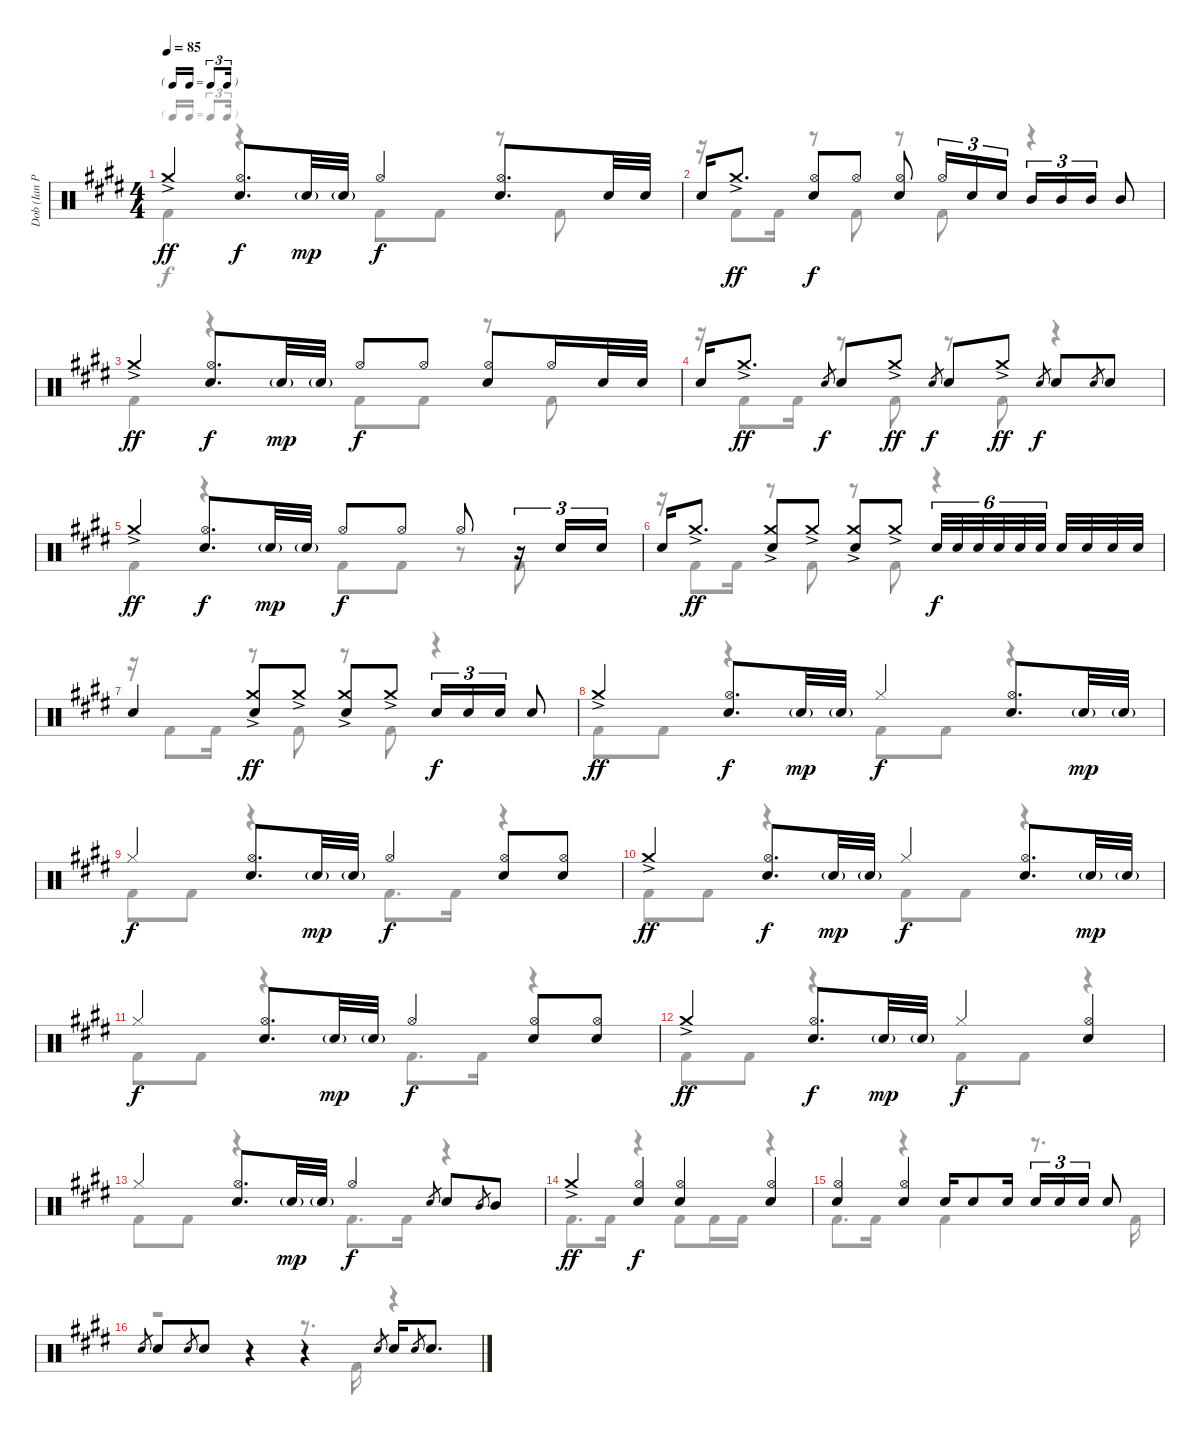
\track ("Dob (Ian Paice)" "Dob (Ian P") {instrument percussion}
\staff {score}
\articulation defaults
\voice
\ts (4 4)
\tf triplet16th
\tempo 85
\clef neutral
\ks e "Crash medium (hit)"{ac}.4{dy ff}
("Hi-Hat (open)" "Electric Snare (hit)").8{d dy f} "Electric Snare (hit)"{g}.32{dy mp} "Electric Snare (hit)"{g}.32 "Hi-Hat (open)".4{dy f} ("Hi-Hat (open)" "Electric Snare (hit)").8{d} "Electric Snare (hit)".32 "Electric Snare (hit)".32 |
"Electric Snare (hit)".16 "Crash medium (hit)"{ac}.8{d dy ff} ("Hi-Hat (open)" "Electric Snare (hit)").8{dy f} "Hi-Hat (open)".8 ("Hi-Hat (open)" "Electric Snare (hit)").8 "Hi-Hat (open)".16{tu (3 2)} "Electric Snare (hit)".16{tu (3 2)} "Electric Snare (hit)".16{tu (3 2)} "Mid Tom (hit)".16{tu (3 2)} "Mid Tom (hit)".16{tu (3 2)} "Mid Tom (hit)".16{tu (3 2)} "Mid Tom (hit)".8 |
"Crash medium (hit)"{ac}.4{dy ff} ("Hi-Hat (open)" "Electric Snare (hit)").8{d dy f} "Electric Snare (hit)"{g}.32{dy mp} "Electric Snare (hit)"{g}.32 "Hi-Hat (open)".8{dy f} "Hi-Hat (open)".8 ("Hi-Hat (open)" "Electric Snare (hit)").8 "Hi-Hat (open)".16 "Electric Snare (hit)".32 "Electric Snare (hit)".32 |
"Electric Snare (hit)".16 "Crash medium (hit)"{ac}.8{d dy ff} "Electric Snare (hit)".8{gr dy f} "Electric Snare (hit)".8 "Crash medium (hit)"{ac}.8{dy ff} "Electric Snare (hit)".8{gr dy f} "Electric Snare (hit)".8 "Crash medium (hit)"{ac}.8{dy ff} "Electric Snare (hit)".8{gr dy f} "Electric Snare (hit)".8 "Electric Snare (hit)".8{gr} "Electric Snare (hit)".8 |
"Crash medium (hit)"{ac}.4{dy ff} ("Hi-Hat (open)" "Electric Snare (hit)").8{d dy f} "Electric Snare (hit)"{g}.32{dy mp} "Electric Snare (hit)"{g}.32 "Hi-Hat (open)".8{dy f} "Hi-Hat (open)".8 "Hi-Hat (open)".8 r.16{tu (3 2)} "Electric Snare (hit)".16{tu (3 2)} "Electric Snare (hit)".16{tu (3 2)} |
"Electric Snare (hit)".16 "Crash medium (hit)"{ac}.8{d dy ff} ("Crash medium (hit)"{ac} "Electric Snare (hit)").8 "Crash medium (hit)"{ac}.8 ("Crash medium (hit)"{ac} "Electric Snare (hit)").8 "Crash medium (hit)"{ac}.8 "Electric Snare (hit)".32{tu (6 4) dy f} "Electric Snare (hit)".32{tu (6 4)} "Electric Snare (hit)".32{tu (6 4)} "Electric Snare (hit)".32{tu (6 4)} "Electric Snare (hit)".32{tu (6 4)} "Electric Snare (hit)".32{tu (6 4) beam splitsecondary} "Electric Snare (hit)".32 "Electric Snare (hit)".32 "Electric Snare (hit)".32 "Electric Snare (hit)".32 |
"Electric Snare (hit)".4 ("Crash medium (hit)"{ac} "Electric Snare (hit)").8{dy ff} "Crash medium (hit)"{ac}.8 ("Crash medium (hit)"{ac} "Electric Snare (hit)").8 "Crash medium (hit)"{ac}.8 "Electric Snare (hit)".16{tu (3 2) dy f} "Electric Snare (hit)".16{tu (3 2)} "Electric Snare (hit)".16{tu (3 2)} "Electric Snare (hit)".8 |
"Crash medium (hit)"{ac}.4{dy ff} ("Hi-Hat (open)" "Electric Snare (hit)").8{d dy f} "Electric Snare (hit)"{g}.32{dy mp} "Electric Snare (hit)"{g}.32 "Hi-Hat (closed)".4{dy f} ("Hi-Hat (open)" "Electric Snare (hit)").8{d} "Electric Snare (hit)"{g}.32{dy mp} "Electric Snare (hit)"{g}.32 |
"Hi-Hat (closed)".4{dy f} ("Hi-Hat (open)" "Electric Snare (hit)").8{d} "Electric Snare (hit)"{g}.32{dy mp} "Electric Snare (hit)"{g}.32 "Hi-Hat (open)".4{dy f} ("Hi-Hat (open)" "Electric Snare (hit)").8 ("Hi-Hat (open)" "Electric Snare (hit)").8 |
"Crash medium (hit)"{ac}.4{dy ff} ("Hi-Hat (open)" "Electric Snare (hit)").8{d dy f} "Electric Snare (hit)"{g}.32{dy mp} "Electric Snare (hit)"{g}.32 "Hi-Hat (closed)".4{dy f} ("Hi-Hat (open)" "Electric Snare (hit)").8{d} "Electric Snare (hit)"{g}.32{dy mp} "Electric Snare (hit)"{g}.32 |
"Hi-Hat (closed)".4{dy f} ("Hi-Hat (open)" "Electric Snare (hit)").8{d} "Electric Snare (hit)"{g}.32{dy mp} "Electric Snare (hit)"{g}.32 "Hi-Hat (open)".4{dy f} ("Hi-Hat (open)" "Electric Snare (hit)").8 ("Hi-Hat (open)" "Electric Snare (hit)").8 |
"Crash medium (hit)"{ac}.4{dy ff} ("Hi-Hat (open)" "Electric Snare (hit)").8{d dy f} "Electric Snare (hit)"{g}.32{dy mp} "Electric Snare (hit)"{g}.32 "Hi-Hat (closed)".4{dy f} ("Hi-Hat (open)" "Electric Snare (hit)").4 |
"Hi-Hat (closed)".4 ("Hi-Hat (open)" "Electric Snare (hit)").8{d} "Electric Snare (hit)"{g}.32{dy mp} "Electric Snare (hit)"{g}.32 "Hi-Hat (open)".4{dy f} "Electric Snare (hit)".8{gr} "Electric Snare (hit)".8 "Mid Tom (hit)".8{gr} "Mid Tom (hit)".8 |
"Crash medium (hit)"{ac}.4{dy ff} ("Hi-Hat (open)" "Electric Snare (hit)").4{dy f} ("Hi-Hat (open)" "Electric Snare (hit)").4 ("Hi-Hat (open)" "Electric Snare (hit)").4 |
("Hi-Hat (open)" "Electric Snare (hit)").4 ("Hi-Hat (open)" "Electric Snare (hit)").4 "Electric Snare (hit)".16 "Electric Snare (hit)".8 "Electric Snare (hit)".16 "Electric Snare (hit)".16{tu (3 2)} "Electric Snare (hit)".16{tu (3 2)} "Electric Snare (hit)".16{tu (3 2)} "Electric Snare (hit)".8 |
"Electric Snare (hit)".8{gr} "Electric Snare (hit)".8 "Electric Snare (hit)".8{gr} "Electric Snare (hit)".8 r.4 r.4 "Electric Snare (hit)".8{gr} "Electric Snare (hit)".16 "Electric Snare (hit)".8{gr} "Electric Snare (hit)".8{d}
\voice
\clef neutral
\ottava regular
\simile none
\ks e "Kick (hit) 2".4{dy f}
r.4 "Kick (hit) 2".8 "Kick (hit) 2".8 r.8 "Kick (hit) 2".8 |
r.16 "Kick (hit) 2".8 "Kick (hit) 2".16 r.8 "Kick (hit) 2".8 r.8 "Kick (hit) 2".8 r.4 |
"Kick (hit) 2".4 r.4 "Kick (hit) 2".8 "Kick (hit) 2".8 r.8 "Kick (hit) 2".8 |
r.16 "Kick (hit) 2".8 "Kick (hit) 2".16 r.8 "Kick (hit) 2".8 r.8 "Kick (hit) 2".8 r.4 |
"Kick (hit) 2".4 r.4 "Kick (hit) 2".8 "Kick (hit) 2".8 r.8 "Kick (hit) 2".8 |
r.16 "Kick (hit) 2".8 "Kick (hit) 2".16 r.8 "Kick (hit) 2".8 r.8 "Kick (hit) 2".8 r.4 |
r.16 "Kick (hit) 2".8 "Kick (hit) 2".16 r.8 "Kick (hit) 2".8 r.8 "Kick (hit) 2".8 r.4 |
"Kick (hit) 2".8 "Kick (hit) 2".8 r.4 "Kick (hit) 2".8 "Kick (hit) 2".8 r.4 |
"Kick (hit) 2".8 "Kick (hit) 2".8 r.4 "Kick (hit) 2".8{d} "Kick (hit) 2".16 r.4 |
"Kick (hit) 2".8 "Kick (hit) 2".8 r.4 "Kick (hit) 2".8 "Kick (hit) 2".8 r.4 |
"Kick (hit) 2".8 "Kick (hit) 2".8 r.4 "Kick (hit) 2".8{d} "Kick (hit) 2".16 r.4 |
"Kick (hit) 2".8 "Kick (hit) 2".8 r.4 "Kick (hit) 2".8 "Kick (hit) 2".8 r.4 |
"Kick (hit) 2".8 "Kick (hit) 2".8 r.4 "Kick (hit) 2".8{d} "Kick (hit) 2".16 r.4 |
"Kick (hit) 2".8{d} "Kick (hit) 2".16 r.4 "Kick (hit) 2".8 "Kick (hit) 2".16 "Kick (hit) 2".16 r.4 |
"Kick (hit) 2".8{d} "Kick (hit) 2".16 r.4 "Kick (hit) 2".4 r.8{d} "Kick (hit) 2".16 |
r.2 r.8{d} "Kick (hit) 2".16 r.4
